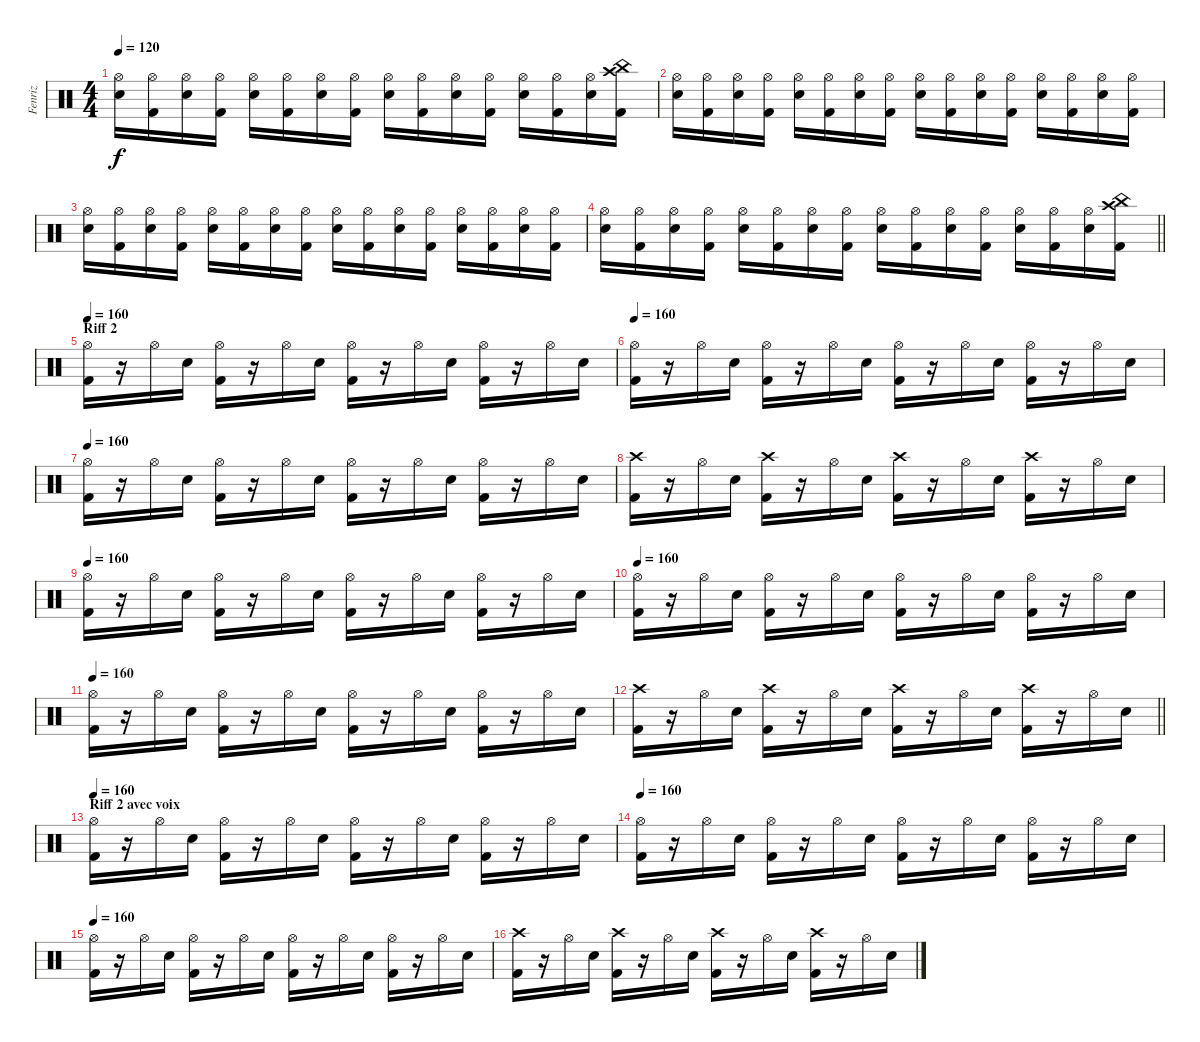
\track ("Fenriz" "Fenriz") {instrument percussion}
\staff {score}
\articulation defaults
\ts (4 4)
\tempo 120
\clef neutral
\ks c
("Hi-Hat (open)" "Electric Snare (hit)").16{dy f} ("Hi-Hat (open)" "Kick (hit) 2").16 ("Hi-Hat (open)" "Electric Snare (hit)").16 ("Hi-Hat (open)" "Kick (hit) 2").16 ("Hi-Hat (open)" "Electric Snare (hit)").16 ("Hi-Hat (open)" "Kick (hit) 2").16 ("Hi-Hat (open)" "Electric Snare (hit)").16 ("Hi-Hat (open)" "Kick (hit) 2").16 ("Hi-Hat (open)" "Electric Snare (hit)").16 ("Hi-Hat (open)" "Kick (hit) 2").16 ("Hi-Hat (open)" "Electric Snare (hit)").16 ("Hi-Hat (open)" "Kick (hit) 2").16 ("Hi-Hat (open)" "Electric Snare (hit)").16 ("Hi-Hat (open)" "Kick (hit) 2").16 ("Hi-Hat (open)" "Electric Snare (hit)").16 ("China (hit)" "Crash high (hit)" "Kick (hit) 2").16 |
("Hi-Hat (open)" "Electric Snare (hit)").16 ("Hi-Hat (open)" "Kick (hit) 2").16 ("Hi-Hat (open)" "Electric Snare (hit)").16 ("Hi-Hat (open)" "Kick (hit) 2").16 ("Hi-Hat (open)" "Electric Snare (hit)").16 ("Hi-Hat (open)" "Kick (hit) 2").16 ("Hi-Hat (open)" "Electric Snare (hit)").16 ("Hi-Hat (open)" "Kick (hit) 2").16 ("Hi-Hat (open)" "Electric Snare (hit)").16 ("Hi-Hat (open)" "Kick (hit) 2").16 ("Hi-Hat (open)" "Electric Snare (hit)").16 ("Hi-Hat (open)" "Kick (hit) 2").16 ("Hi-Hat (open)" "Electric Snare (hit)").16 ("Hi-Hat (open)" "Kick (hit) 2").16 ("Hi-Hat (open)" "Electric Snare (hit)").16 ("Hi-Hat (open)" "Kick (hit) 2").16 |
("Hi-Hat (open)" "Electric Snare (hit)").16 ("Hi-Hat (open)" "Kick (hit) 2").16 ("Hi-Hat (open)" "Electric Snare (hit)").16 ("Hi-Hat (open)" "Kick (hit) 2").16 ("Hi-Hat (open)" "Electric Snare (hit)").16 ("Hi-Hat (open)" "Kick (hit) 2").16 ("Hi-Hat (open)" "Electric Snare (hit)").16 ("Hi-Hat (open)" "Kick (hit) 2").16 ("Hi-Hat (open)" "Electric Snare (hit)").16 ("Hi-Hat (open)" "Kick (hit) 2").16 ("Hi-Hat (open)" "Electric Snare (hit)").16 ("Hi-Hat (open)" "Kick (hit) 2").16 ("Hi-Hat (open)" "Electric Snare (hit)").16 ("Hi-Hat (open)" "Kick (hit) 2").16 ("Hi-Hat (open)" "Electric Snare (hit)").16 ("Hi-Hat (open)" "Kick (hit) 2").16 |
\barLineRight lightlight
("Hi-Hat (open)" "Electric Snare (hit)").16 ("Hi-Hat (open)" "Kick (hit) 2").16 ("Hi-Hat (open)" "Electric Snare (hit)").16 ("Hi-Hat (open)" "Kick (hit) 2").16 ("Hi-Hat (open)" "Electric Snare (hit)").16 ("Hi-Hat (open)" "Kick (hit) 2").16 ("Hi-Hat (open)" "Electric Snare (hit)").16 ("Hi-Hat (open)" "Kick (hit) 2").16 ("Hi-Hat (open)" "Electric Snare (hit)").16 ("Hi-Hat (open)" "Kick (hit) 2").16 ("Hi-Hat (open)" "Electric Snare (hit)").16 ("Hi-Hat (open)" "Kick (hit) 2").16 ("Hi-Hat (open)" "Electric Snare (hit)").16 ("Hi-Hat (open)" "Kick (hit) 2").16 ("Hi-Hat (open)" "Electric Snare (hit)").16 ("China (hit)" "Crash high (hit)" "Kick (hit) 2").16 |
\section ("" "Riff 2")
\tempo 160
("Hi-Hat (open)" "Kick (hit) 2").16 r.16 "Hi-Hat (open)".16 "Electric Snare (hit)".16 ("Hi-Hat (open)" "Kick (hit) 2").16 r.16 "Hi-Hat (open)".16 "Electric Snare (hit)".16 ("Hi-Hat (open)" "Kick (hit) 2").16 r.16 "Hi-Hat (open)".16 "Electric Snare (hit)".16 ("Hi-Hat (open)" "Kick (hit) 2").16 r.16 "Hi-Hat (open)".16 "Electric Snare (hit)".16 |
\tempo 160
("Hi-Hat (open)" "Kick (hit) 2").16 r.16 "Hi-Hat (open)".16 "Electric Snare (hit)".16 ("Hi-Hat (open)" "Kick (hit) 2").16 r.16 "Hi-Hat (open)".16 "Electric Snare (hit)".16 ("Hi-Hat (open)" "Kick (hit) 2").16 r.16 "Hi-Hat (open)".16 "Electric Snare (hit)".16 ("Hi-Hat (open)" "Kick (hit) 2").16 r.16 "Hi-Hat (open)".16 "Electric Snare (hit)".16 |
\tempo 160
("Hi-Hat (open)" "Kick (hit) 2").16 r.16 "Hi-Hat (open)".16 "Electric Snare (hit)".16 ("Hi-Hat (open)" "Kick (hit) 2").16 r.16 "Hi-Hat (open)".16 "Electric Snare (hit)".16 ("Hi-Hat (open)" "Kick (hit) 2").16 r.16 "Hi-Hat (open)".16 "Electric Snare (hit)".16 ("Hi-Hat (open)" "Kick (hit) 2").16 r.16 "Hi-Hat (open)".16 "Electric Snare (hit)".16 |
("Crash high (hit)" "Kick (hit) 2").16 r.16 "Hi-Hat (open)".16 "Electric Snare (hit)".16 ("Crash high (hit)" "Kick (hit) 2").16 r.16 "Hi-Hat (open)".16 "Electric Snare (hit)".16 ("Crash high (hit)" "Kick (hit) 2").16 r.16 "Hi-Hat (open)".16 "Electric Snare (hit)".16 ("Crash high (hit)" "Kick (hit) 2").16 r.16 "Hi-Hat (open)".16 "Electric Snare (hit)".16 |
\tempo 160
("Hi-Hat (open)" "Kick (hit) 2").16 r.16 "Hi-Hat (open)".16 "Electric Snare (hit)".16 ("Hi-Hat (open)" "Kick (hit) 2").16 r.16 "Hi-Hat (open)".16 "Electric Snare (hit)".16 ("Hi-Hat (open)" "Kick (hit) 2").16 r.16 "Hi-Hat (open)".16 "Electric Snare (hit)".16 ("Hi-Hat (open)" "Kick (hit) 2").16 r.16 "Hi-Hat (open)".16 "Electric Snare (hit)".16 |
\tempo 160
("Hi-Hat (open)" "Kick (hit) 2").16 r.16 "Hi-Hat (open)".16 "Electric Snare (hit)".16 ("Hi-Hat (open)" "Kick (hit) 2").16 r.16 "Hi-Hat (open)".16 "Electric Snare (hit)".16 ("Hi-Hat (open)" "Kick (hit) 2").16 r.16 "Hi-Hat (open)".16 "Electric Snare (hit)".16 ("Hi-Hat (open)" "Kick (hit) 2").16 r.16 "Hi-Hat (open)".16 "Electric Snare (hit)".16 |
\tempo 160
("Hi-Hat (open)" "Kick (hit) 2").16 r.16 "Hi-Hat (open)".16 "Electric Snare (hit)".16 ("Hi-Hat (open)" "Kick (hit) 2").16 r.16 "Hi-Hat (open)".16 "Electric Snare (hit)".16 ("Hi-Hat (open)" "Kick (hit) 2").16 r.16 "Hi-Hat (open)".16 "Electric Snare (hit)".16 ("Hi-Hat (open)" "Kick (hit) 2").16 r.16 "Hi-Hat (open)".16 "Electric Snare (hit)".16 |
\barLineRight lightlight
("Crash high (hit)" "Kick (hit) 2").16 r.16 "Hi-Hat (open)".16 "Electric Snare (hit)".16 ("Crash high (hit)" "Kick (hit) 2").16 r.16 "Hi-Hat (open)".16 "Electric Snare (hit)".16 ("Crash high (hit)" "Kick (hit) 2").16 r.16 "Hi-Hat (open)".16 "Electric Snare (hit)".16 ("Crash high (hit)" "Kick (hit) 2").16 r.16 "Hi-Hat (open)".16 "Electric Snare (hit)".16 |
\section ("" "Riff 2 avec voix")
\tempo 160
("Hi-Hat (open)" "Kick (hit) 2").16 r.16 "Hi-Hat (open)".16 "Electric Snare (hit)".16 ("Hi-Hat (open)" "Kick (hit) 2").16 r.16 "Hi-Hat (open)".16 "Electric Snare (hit)".16 ("Hi-Hat (open)" "Kick (hit) 2").16 r.16 "Hi-Hat (open)".16 "Electric Snare (hit)".16 ("Hi-Hat (open)" "Kick (hit) 2").16 r.16 "Hi-Hat (open)".16 "Electric Snare (hit)".16 |
\tempo 160
("Hi-Hat (open)" "Kick (hit) 2").16 r.16 "Hi-Hat (open)".16 "Electric Snare (hit)".16 ("Hi-Hat (open)" "Kick (hit) 2").16 r.16 "Hi-Hat (open)".16 "Electric Snare (hit)".16 ("Hi-Hat (open)" "Kick (hit) 2").16 r.16 "Hi-Hat (open)".16 "Electric Snare (hit)".16 ("Hi-Hat (open)" "Kick (hit) 2").16 r.16 "Hi-Hat (open)".16 "Electric Snare (hit)".16 |
\tempo 160
("Hi-Hat (open)" "Kick (hit) 2").16 r.16 "Hi-Hat (open)".16 "Electric Snare (hit)".16 ("Hi-Hat (open)" "Kick (hit) 2").16 r.16 "Hi-Hat (open)".16 "Electric Snare (hit)".16 ("Hi-Hat (open)" "Kick (hit) 2").16 r.16 "Hi-Hat (open)".16 "Electric Snare (hit)".16 ("Hi-Hat (open)" "Kick (hit) 2").16 r.16 "Hi-Hat (open)".16 "Electric Snare (hit)".16 |
("Crash high (hit)" "Kick (hit) 2").16 r.16 "Hi-Hat (open)".16 "Electric Snare (hit)".16 ("Crash high (hit)" "Kick (hit) 2").16 r.16 "Hi-Hat (open)".16 "Electric Snare (hit)".16 ("Crash high (hit)" "Kick (hit) 2").16 r.16 "Hi-Hat (open)".16 "Electric Snare (hit)".16 ("Crash high (hit)" "Kick (hit) 2").16 r.16 "Hi-Hat (open)".16 "Electric Snare (hit)".16
